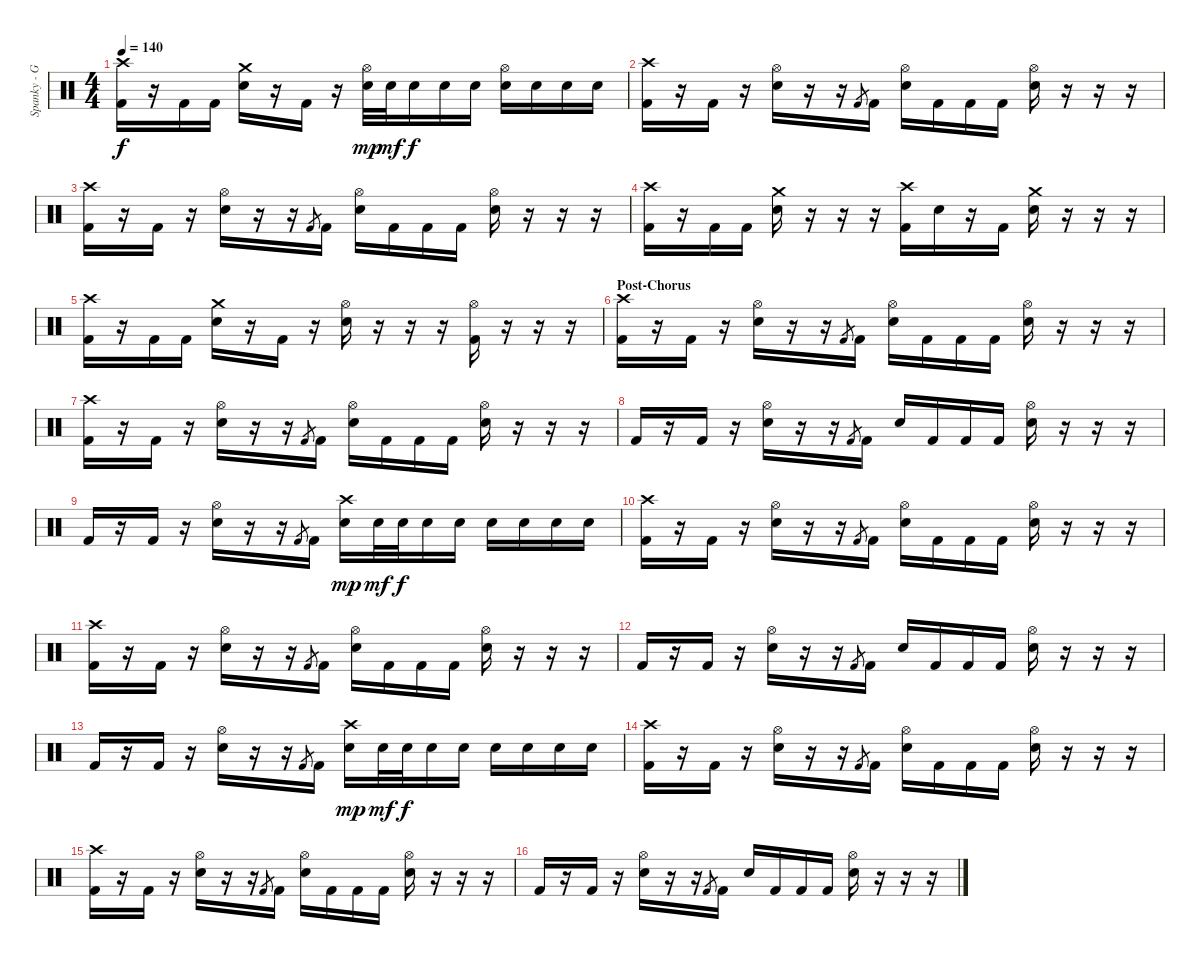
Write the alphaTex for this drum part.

\track ("Spanky - G (Ex-drummer)" "Spanky - G") {instrument percussion}
\staff {score}
\articulation defaults
\ts (4 4)
\tempo 140
\clef neutral
\ks c
("Crash high (hit)" "Kick (hit) 2").16{dy f} r.16 "Kick (hit) 2".16 "Kick (hit) 2".16 ("Crash medium (hit)" "Electric Snare (hit)").16 r.16 "Kick (hit) 2".16 r.16 ("Hi-Hat (open)" "Electric Snare (hit)").32{dy mp} "Electric Snare (hit)".32{dy mf} "Electric Snare (hit)".16{dy f} "Electric Snare (hit)".16 "Electric Snare (hit)".16 ("Hi-Hat (open)" "Electric Snare (hit)").16 "Electric Snare (hit)".16 "Electric Snare (hit)".16 "Electric Snare (hit)".16 |
("Crash high (hit)" "Kick (hit) 2").16 r.16 "Kick (hit) 2".16 r.16 ("Hi-Hat (open)" "Electric Snare (hit)").16 r.16 r.16 "Kick (hit) 2".8{gr} "Kick (hit) 2".16 ("Hi-Hat (open)" "Electric Snare (hit)").16 "Kick (hit) 2".16 "Kick (hit) 2".16 "Kick (hit) 2".16 ("Hi-Hat (open)" "Electric Snare (hit)").16 r.16 r.16 r.16 |
("Crash high (hit)" "Kick (hit) 2").16 r.16 "Kick (hit) 2".16 r.16 ("Hi-Hat (open)" "Electric Snare (hit)").16 r.16 r.16 "Kick (hit) 2".8{gr} "Kick (hit) 2".16 ("Hi-Hat (open)" "Electric Snare (hit)").16 "Kick (hit) 2".16 "Kick (hit) 2".16 "Kick (hit) 2".16 ("Hi-Hat (open)" "Electric Snare (hit)").16 r.16 r.16 r.16 |
("Crash high (hit)" "Kick (hit) 2").16 r.16 "Kick (hit) 2".16 "Kick (hit) 2".16 ("Crash medium (hit)" "Electric Snare (hit)").16 r.16 r.16 r.16 ("Crash high (hit)" "Kick (hit) 2").16 "Electric Snare (hit)".16 r.16 "Kick (hit) 2".16 ("Crash medium (hit)" "Electric Snare (hit)").16 r.16 r.16 r.16 |
("Crash high (hit)" "Kick (hit) 2").16 r.16 "Kick (hit) 2".16 "Kick (hit) 2".16 ("Crash medium (hit)" "Electric Snare (hit)").16 r.16 "Kick (hit) 2".16 r.16 ("Hi-Hat (open)" "Electric Snare (hit)").16 r.16 r.16 r.16 ("Hi-Hat (open)" "Kick (hit) 2").16 r.16 r.16 r.16 |
\section ("" "Post-Chorus")
("Crash high (hit)" "Kick (hit) 2").16 r.16 "Kick (hit) 2".16 r.16 ("Hi-Hat (open)" "Electric Snare (hit)").16 r.16 r.16 "Kick (hit) 2".8{gr} "Kick (hit) 2".16 ("Hi-Hat (open)" "Electric Snare (hit)").16 "Kick (hit) 2".16 "Kick (hit) 2".16 "Kick (hit) 2".16 ("Hi-Hat (open)" "Electric Snare (hit)").16 r.16 r.16 r.16 |
("Crash high (hit)" "Kick (hit) 2").16 r.16 "Kick (hit) 2".16 r.16 ("Hi-Hat (open)" "Electric Snare (hit)").16 r.16 r.16 "Kick (hit) 2".8{gr} "Kick (hit) 2".16 ("Hi-Hat (open)" "Electric Snare (hit)").16 "Kick (hit) 2".16 "Kick (hit) 2".16 "Kick (hit) 2".16 ("Hi-Hat (open)" "Electric Snare (hit)").16 r.16 r.16 r.16 |
"Kick (hit) 2".16 r.16 "Kick (hit) 2".16 r.16 ("Hi-Hat (open)" "Electric Snare (hit)").16 r.16 r.16 "Kick (hit) 2".8{gr} "Kick (hit) 2".16 "Electric Snare (hit)".16 "Kick (hit) 2".16 "Kick (hit) 2".16 "Kick (hit) 2".16 ("Hi-Hat (open)" "Electric Snare (hit)").16 r.16 r.16 r.16 |
"Kick (hit) 2".16 r.16 "Kick (hit) 2".16 r.16 ("Hi-Hat (open)" "Electric Snare (hit)").16 r.16 r.16 "Kick (hit) 2".8{gr} "Kick (hit) 2".16 ("Crash high (hit)" "Electric Snare (hit)").16{dy mp} "Electric Snare (hit)".32{dy mf} "Electric Snare (hit)".32{dy f} "Electric Snare (hit)".16 "Electric Snare (hit)".16 "Electric Snare (hit)".16 "Electric Snare (hit)".16 "Electric Snare (hit)".16 "Electric Snare (hit)".16 |
("Crash high (hit)" "Kick (hit) 2").16 r.16 "Kick (hit) 2".16 r.16 ("Hi-Hat (open)" "Electric Snare (hit)").16 r.16 r.16 "Kick (hit) 2".8{gr} "Kick (hit) 2".16 ("Hi-Hat (open)" "Electric Snare (hit)").16 "Kick (hit) 2".16 "Kick (hit) 2".16 "Kick (hit) 2".16 ("Hi-Hat (open)" "Electric Snare (hit)").16 r.16 r.16 r.16 |
("Crash high (hit)" "Kick (hit) 2").16 r.16 "Kick (hit) 2".16 r.16 ("Hi-Hat (open)" "Electric Snare (hit)").16 r.16 r.16 "Kick (hit) 2".8{gr} "Kick (hit) 2".16 ("Hi-Hat (open)" "Electric Snare (hit)").16 "Kick (hit) 2".16 "Kick (hit) 2".16 "Kick (hit) 2".16 ("Hi-Hat (open)" "Electric Snare (hit)").16 r.16 r.16 r.16 |
"Kick (hit) 2".16 r.16 "Kick (hit) 2".16 r.16 ("Hi-Hat (open)" "Electric Snare (hit)").16 r.16 r.16 "Kick (hit) 2".8{gr} "Kick (hit) 2".16 "Electric Snare (hit)".16 "Kick (hit) 2".16 "Kick (hit) 2".16 "Kick (hit) 2".16 ("Hi-Hat (open)" "Electric Snare (hit)").16 r.16 r.16 r.16 |
"Kick (hit) 2".16 r.16 "Kick (hit) 2".16 r.16 ("Hi-Hat (open)" "Electric Snare (hit)").16 r.16 r.16 "Kick (hit) 2".8{gr} "Kick (hit) 2".16 ("Crash high (hit)" "Electric Snare (hit)").16{dy mp} "Electric Snare (hit)".32{dy mf} "Electric Snare (hit)".32{dy f} "Electric Snare (hit)".16 "Electric Snare (hit)".16 "Electric Snare (hit)".16 "Electric Snare (hit)".16 "Electric Snare (hit)".16 "Electric Snare (hit)".16 |
("Crash high (hit)" "Kick (hit) 2").16 r.16 "Kick (hit) 2".16 r.16 ("Hi-Hat (open)" "Electric Snare (hit)").16 r.16 r.16 "Kick (hit) 2".8{gr} "Kick (hit) 2".16 ("Hi-Hat (open)" "Electric Snare (hit)").16 "Kick (hit) 2".16 "Kick (hit) 2".16 "Kick (hit) 2".16 ("Hi-Hat (open)" "Electric Snare (hit)").16 r.16 r.16 r.16 |
("Crash high (hit)" "Kick (hit) 2").16 r.16 "Kick (hit) 2".16 r.16 ("Hi-Hat (open)" "Electric Snare (hit)").16 r.16 r.16 "Kick (hit) 2".8{gr} "Kick (hit) 2".16 ("Hi-Hat (open)" "Electric Snare (hit)").16 "Kick (hit) 2".16 "Kick (hit) 2".16 "Kick (hit) 2".16 ("Hi-Hat (open)" "Electric Snare (hit)").16 r.16 r.16 r.16 |
"Kick (hit) 2".16 r.16 "Kick (hit) 2".16 r.16 ("Hi-Hat (open)" "Electric Snare (hit)").16 r.16 r.16 "Kick (hit) 2".8{gr} "Kick (hit) 2".16 "Electric Snare (hit)".16 "Kick (hit) 2".16 "Kick (hit) 2".16 "Kick (hit) 2".16 ("Hi-Hat (open)" "Electric Snare (hit)").16 r.16 r.16 r.16
